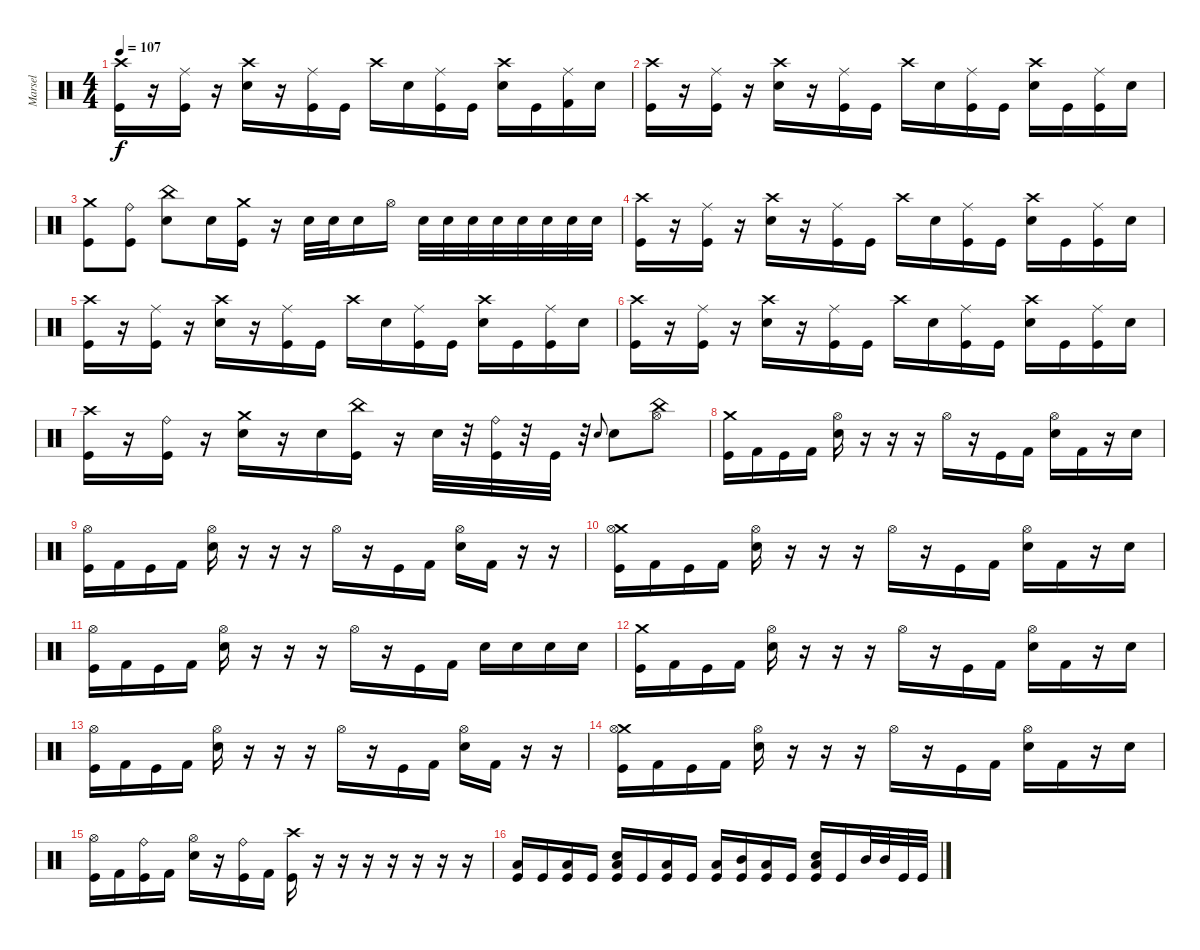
\track ("Marsel" "Marsel") {instrument percussion}
\staff {score}
\articulation defaults
\ts (4 4)
\tempo 107
\clef neutral
\ks c
("Crash high (hit)" "Kick (hit)").16{dy f} r.16 ("Ride (middle)" "Kick (hit)").16 r.16 ("Crash high (hit)" "Snare (hit) 2").16 r.16 ("Ride (middle)" "Kick (hit)").16 "Kick (hit)".16 "Crash high (hit)".16 "Snare (hit) 2".16 ("Ride (middle)" "Kick (hit)").16 "Kick (hit)".16 ("Crash high (hit)" "Snare (hit) 2").16 "Kick (hit)".16 ("Ride (middle)" "Kick (hit) 2").16 "Snare (hit) 2".16 |
("Crash high (hit)" "Kick (hit)").16 r.16 ("Ride (middle)" "Kick (hit)").16 r.16 ("Crash high (hit)" "Snare (hit) 2").16 r.16 ("Ride (middle)" "Kick (hit)").16 "Kick (hit)".16 "Crash high (hit)".16 "Snare (hit) 2".16 ("Ride (middle)" "Kick (hit)").16 "Kick (hit)".16 ("Crash high (hit)" "Snare (hit) 2").16 "Kick (hit)".16 ("Ride (middle)" "Kick (hit)").16 "Snare (hit) 2".16 |
("Crash medium (hit)" "Kick (hit)").8 ("Ride (bell)" "Kick (hit)").8 ("China (hit)" "Snare (hit) 2").8 "Snare (hit) 2".16 ("Crash medium (hit)" "Kick (hit)").16 r.16 "Snare (hit) 2".32 "Snare (hit) 2".32 "Snare (hit) 2".16 "Hi-Hat (open)".16 "Snare (hit) 2".32 "Snare (hit) 2".32 "Snare (hit) 2".32 "Snare (hit) 2".32 "Snare (hit) 2".32 "Snare (hit) 2".32 "Snare (hit) 2".32 "Snare (hit) 2".32 |
("Crash high (hit)" "Kick (hit)").16 r.16 ("Ride (middle)" "Kick (hit)").16 r.16 ("Crash high (hit)" "Snare (hit) 2").16 r.16 ("Ride (middle)" "Kick (hit)").16 "Kick (hit)".16 "Crash high (hit)".16 "Snare (hit) 2".16 ("Ride (middle)" "Kick (hit)").16 "Kick (hit)".16 ("Crash high (hit)" "Snare (hit) 2").16 "Kick (hit)".16 ("Ride (middle)" "Kick (hit)").16 "Snare (hit) 2".16 |
("Crash high (hit)" "Kick (hit)").16 r.16 ("Ride (middle)" "Kick (hit)").16 r.16 ("Crash high (hit)" "Snare (hit) 2").16 r.16 ("Ride (middle)" "Kick (hit)").16 "Kick (hit)".16 "Crash high (hit)".16 "Snare (hit) 2".16 ("Ride (middle)" "Kick (hit)").16 "Kick (hit)".16 ("Crash high (hit)" "Snare (hit) 2").16 "Kick (hit)".16 ("Ride (middle)" "Kick (hit)").16 "Snare (hit) 2".16 |
("Crash high (hit)" "Kick (hit)").16 r.16 ("Ride (middle)" "Kick (hit)").16 r.16 ("Crash high (hit)" "Snare (hit) 2").16 r.16 ("Ride (middle)" "Kick (hit)").16 "Kick (hit)".16 "Crash high (hit)".16 "Snare (hit) 2".16 ("Ride (middle)" "Kick (hit)").16 "Kick (hit)".16 ("Crash high (hit)" "Snare (hit) 2").16 "Kick (hit)".16 ("Ride (middle)" "Kick (hit)").16 "Snare (hit) 2".16 |
("Crash high (hit)" "Kick (hit)").16 r.16 ("Ride (bell)" "Kick (hit)").16 r.16 ("Crash medium (hit)" "Snare (hit) 2").16 r.16 "Snare (hit) 2".16 ("China (hit)" "Kick (hit)").16 r.16 "Snare (hit) 2".32 r.32 ("Ride (bell)" "Kick (hit)").32 r.32 "Kick (hit)".32 r.32 "Snare (hit) 2".8{gr onbeat} "Snare (hit) 2".8 ("China (hit)" "Hi-Hat (open)").8 |
("Crash medium (hit)" "Kick (hit)").16 "Kick (hit) 2".16 "Kick (hit)".16 "Kick (hit) 2".16 ("Hi-Hat (open)" "Snare (hit) 2").16 r.16 r.16 r.16 "Hi-Hat (open)".16 r.16 "Kick (hit)".16 "Kick (hit) 2".16 ("Hi-Hat (open)" "Snare (hit) 2").16 "Kick (hit) 2".16 r.16 "Snare (hit) 2".16 |
("Hi-Hat (open)" "Kick (hit)").16 "Kick (hit) 2".16 "Kick (hit)".16 "Kick (hit) 2".16 ("Hi-Hat (open)" "Snare (hit) 2").16 r.16 r.16 r.16 "Hi-Hat (open)".16 r.16 "Kick (hit)".16 "Kick (hit) 2".16 ("Hi-Hat (open)" "Snare (hit) 2").16 "Kick (hit) 2".16 r.16 r.16 |
("Crash medium (hit)" "Hi-Hat (open)" "Kick (hit)").16 "Kick (hit) 2".16 "Kick (hit)".16 "Kick (hit) 2".16 ("Hi-Hat (open)" "Snare (hit) 2").16 r.16 r.16 r.16 "Hi-Hat (open)".16 r.16 "Kick (hit)".16 "Kick (hit) 2".16 ("Hi-Hat (open)" "Snare (hit) 2").16 "Kick (hit) 2".16 r.16 "Snare (hit) 2".16 |
("Hi-Hat (open)" "Kick (hit)").16 "Kick (hit) 2".16 "Kick (hit)".16 "Kick (hit) 2".16 ("Hi-Hat (open)" "Snare (hit) 2").16 r.16 r.16 r.16 "Hi-Hat (open)".16 r.16 "Kick (hit)".16 "Kick (hit) 2".16 "Snare (hit) 2".16 "Snare (hit) 2".16 "Snare (hit) 2".16 "Snare (hit) 2".16 |
("Crash medium (hit)" "Kick (hit)").16 "Kick (hit) 2".16 "Kick (hit)".16 "Kick (hit) 2".16 ("Hi-Hat (open)" "Snare (hit) 2").16 r.16 r.16 r.16 "Hi-Hat (open)".16 r.16 "Kick (hit)".16 "Kick (hit) 2".16 ("Hi-Hat (open)" "Snare (hit) 2").16 "Kick (hit) 2".16 r.16 "Snare (hit) 2".16 |
("Hi-Hat (open)" "Kick (hit)").16 "Kick (hit) 2".16 "Kick (hit)".16 "Kick (hit) 2".16 ("Hi-Hat (open)" "Snare (hit) 2").16 r.16 r.16 r.16 "Hi-Hat (open)".16 r.16 "Kick (hit)".16 "Kick (hit) 2".16 ("Hi-Hat (open)" "Snare (hit) 2").16 "Kick (hit) 2".16 r.16 r.16 |
("Crash medium (hit)" "Hi-Hat (open)" "Kick (hit)").16 "Kick (hit) 2".16 "Kick (hit)".16 "Kick (hit) 2".16 ("Hi-Hat (open)" "Snare (hit) 2").16 r.16 r.16 r.16 "Hi-Hat (open)".16 r.16 "Kick (hit)".16 "Kick (hit) 2".16 ("Hi-Hat (open)" "Snare (hit) 2").16 "Kick (hit) 2".16 r.16 "Snare (hit) 2".16 |
("Hi-Hat (open)" "Kick (hit)").16 "Kick (hit) 2".16 ("Ride (bell)" "Kick (hit)").16 "Kick (hit) 2".16 ("Hi-Hat (open)" "Snare (hit) 2").16 r.16 ("Ride (bell)" "Kick (hit)").16 "Kick (hit) 2".16 ("Crash high (hit)" "Kick (hit)").16 r.16 r.16 r.16 r.16 r.16 r.16 r.16 |
("Low Tom (hit)" "Kick (hit)").16 "Kick (hit)".16 ("Low Tom (hit)" "Kick (hit)").16 "Kick (hit)".16 ("Snare (hit) 2" "Low Tom (hit)" "Kick (hit)").16 "Kick (hit)".16 ("Low Tom (hit)" "Kick (hit)").16 "Kick (hit)".16 ("Low Tom (hit)" "Kick (hit)").16 ("Mid Tom (hit)" "Kick (hit)").16 ("Low Tom (hit)" "Kick (hit)").16 "Kick (hit)".16 ("Snare (hit) 2" "Low Tom (hit)" "Kick (hit)").16 "Kick (hit)".16 "Mid Tom (hit)".32 "Mid Tom (hit)".32 "Kick (hit)".32 "Kick (hit)".32
